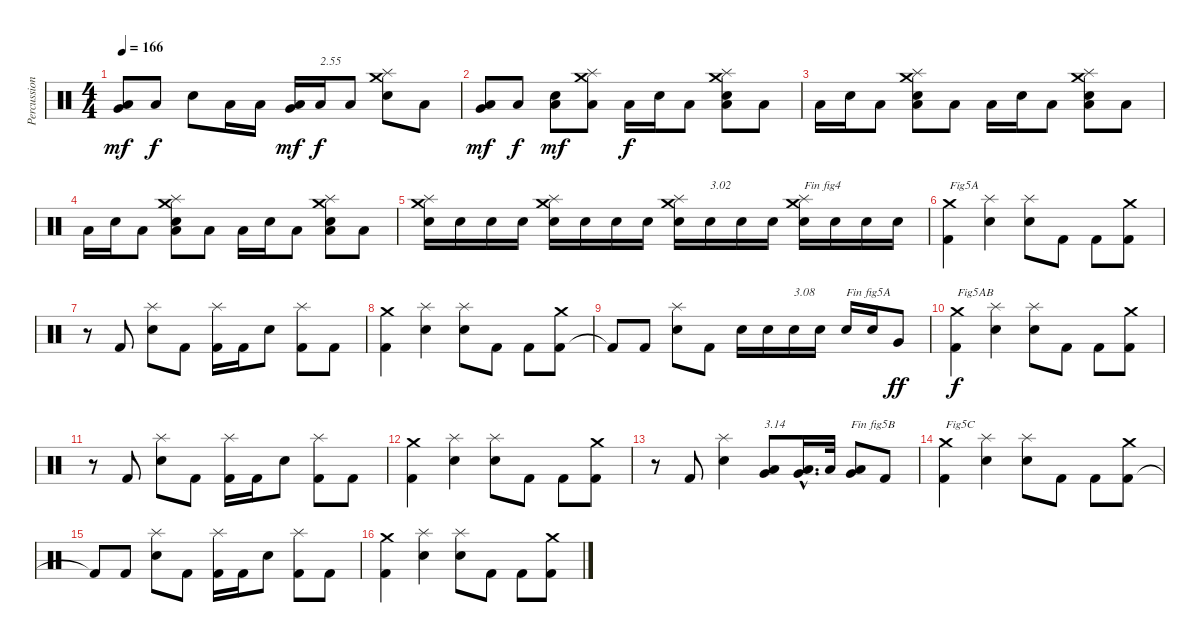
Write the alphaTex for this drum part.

\track ("Percussions" "Percussion") {instrument percussion}
\staff {score}
\articulation defaults
\ts (4 4)
\tempo 166
\clef neutral
\ks c
("Low Floor Tom (hit)" "Very Low Tom (hit)").8{dy mf} "Low Floor Tom (hit)".8{dy f} "Electric Snare (hit)".8 "Low Floor Tom (hit)".16 "Low Floor Tom (hit)".16 ("Low Floor Tom (hit)" "Very Low Tom (hit)").16{dy mf} "Low Floor Tom (hit)".16{txt "2.55" dy f} "Low Floor Tom (hit)".8 ("Electric Snare (hit)" "Splash (hit)" "Crash medium (hit)").8 "Low Floor Tom (hit)".8 |
("Low Floor Tom (hit)" "Very Low Tom (hit)").8{dy mf} "Low Floor Tom (hit)".8{dy f} ("Low Floor Tom (hit)" "Electric Snare (hit)").8{dy mf} ("Low Floor Tom (hit)" "Splash (hit)" "Crash medium (hit)").8 "Low Floor Tom (hit)".16{dy f} "Electric Snare (hit)".16 "Low Floor Tom (hit)".8 ("Low Floor Tom (hit)" "Electric Snare (hit)" "Splash (hit)" "Crash medium (hit)").8 "Low Floor Tom (hit)".8 |
"Low Floor Tom (hit)".16 "Electric Snare (hit)".16 "Low Floor Tom (hit)".8 ("Low Floor Tom (hit)" "Electric Snare (hit)" "Splash (hit)" "Crash medium (hit)").8 "Low Floor Tom (hit)".8 "Low Floor Tom (hit)".16 "Electric Snare (hit)".16 "Low Floor Tom (hit)".8 ("Low Floor Tom (hit)" "Electric Snare (hit)" "Splash (hit)" "Crash medium (hit)").8 "Low Floor Tom (hit)".8 |
"Low Floor Tom (hit)".16 "Electric Snare (hit)".16 "Low Floor Tom (hit)".8 ("Low Floor Tom (hit)" "Electric Snare (hit)" "Splash (hit)" "Crash medium (hit)").8 "Low Floor Tom (hit)".8 "Low Floor Tom (hit)".16 "Electric Snare (hit)".16 "Low Floor Tom (hit)".8 ("Low Floor Tom (hit)" "Electric Snare (hit)" "Splash (hit)" "Crash medium (hit)").8 "Low Floor Tom (hit)".8 |
("Electric Snare (hit)" "Splash (hit)" "Crash medium (hit)").16 "Electric Snare (hit)".16 "Electric Snare (hit)".16 "Electric Snare (hit)".16 ("Electric Snare (hit)" "Splash (hit)" "Crash medium (hit)").16 "Electric Snare (hit)".16 "Electric Snare (hit)".16 "Electric Snare (hit)".16 ("Electric Snare (hit)" "Splash (hit)" "Crash medium (hit)").16 "Electric Snare (hit)".16{txt "3.02"} "Electric Snare (hit)".16 "Electric Snare (hit)".16 ("Electric Snare (hit)" "Splash (hit)" "Crash medium (hit)").16{txt "Fin fig4"} "Electric Snare (hit)".16 "Electric Snare (hit)".16 "Electric Snare (hit)".16 |
("Kick (hit) 2" "Crash medium (hit)").4{txt "Fig5A"} ("Electric Snare (hit)" "Splash (hit)").4 ("Electric Snare (hit)" "Splash (hit)").8 "Kick (hit) 2".8 "Kick (hit) 2".8 ("Kick (hit) 2" "Crash medium (hit)").8 |
r.8 "Kick (hit) 2".8 ("Electric Snare (hit)" "Splash (hit)").8 "Kick (hit) 2".8 ("Kick (hit) 2" "Splash (hit)").16 "Kick (hit) 2".16 "Electric Snare (hit)".8 ("Kick (hit) 2" "Splash (hit)").8 "Kick (hit) 2".8 |
("Kick (hit) 2" "Crash medium (hit)").4 ("Electric Snare (hit)" "Splash (hit)").4 ("Electric Snare (hit)" "Splash (hit)").8 "Kick (hit) 2".8 "Kick (hit) 2".8 ("Kick (hit) 2" "Crash medium (hit)").8 |
"Kick (hit) 2"{t}.8 "Kick (hit) 2".8 ("Electric Snare (hit)" "Splash (hit)").8 "Kick (hit) 2".8 "Electric Snare (hit)".16 "Electric Snare (hit)".16 "Electric Snare (hit)".16{txt "3.08"} "Electric Snare (hit)".16 "Electric Snare (hit)".16{txt "Fin fig5A"} "Electric Snare (hit)".16 "Very Low Tom (hit)".8{dy ff} |
("Kick (hit) 2" "Crash medium (hit)").4{txt "Fig5AB" dy f} ("Electric Snare (hit)" "Splash (hit)").4 ("Electric Snare (hit)" "Splash (hit)").8 "Kick (hit) 2".8 "Kick (hit) 2".8 ("Kick (hit) 2" "Crash medium (hit)").8 |
r.8 "Kick (hit) 2".8 ("Electric Snare (hit)" "Splash (hit)").8 "Kick (hit) 2".8 ("Kick (hit) 2" "Splash (hit)").16 "Kick (hit) 2".16 "Electric Snare (hit)".8 ("Kick (hit) 2" "Splash (hit)").8 "Kick (hit) 2".8 |
("Kick (hit) 2" "Crash medium (hit)").4 ("Electric Snare (hit)" "Splash (hit)").4 ("Electric Snare (hit)" "Splash (hit)").8 "Kick (hit) 2".8 "Kick (hit) 2".8 ("Kick (hit) 2" "Crash medium (hit)").8 |
r.8 "Kick (hit) 2".8 ("Electric Snare (hit)" "Splash (hit)").4 ("Low Floor Tom (hit)" "Very Low Tom (hit)").8{txt "3.14"} ("Low Floor Tom (hit)"{hac} "Very Low Tom (hit)"{hac}).16{d} "Low Floor Tom (hit)".32 ("Low Floor Tom (hit)" "Very Low Tom (hit)").8{txt "Fin fig5B"} "Kick (hit) 2".8 |
("Kick (hit) 2" "Crash medium (hit)").4{txt "Fig5C"} ("Electric Snare (hit)" "Splash (hit)").4 ("Electric Snare (hit)" "Splash (hit)").8 "Kick (hit) 2".8 "Kick (hit) 2".8 ("Kick (hit) 2" "Crash medium (hit)").8 |
"Kick (hit) 2"{t}.8 "Kick (hit) 2".8 ("Electric Snare (hit)" "Splash (hit)").8 "Kick (hit) 2".8 ("Kick (hit) 2" "Splash (hit)").16 "Kick (hit) 2".16 "Electric Snare (hit)".8 ("Kick (hit) 2" "Splash (hit)").8 "Kick (hit) 2".8 |
("Kick (hit) 2" "Crash medium (hit)").4 ("Electric Snare (hit)" "Splash (hit)").4 ("Electric Snare (hit)" "Splash (hit)").8 "Kick (hit) 2".8 "Kick (hit) 2".8 ("Kick (hit) 2" "Crash medium (hit)").8
